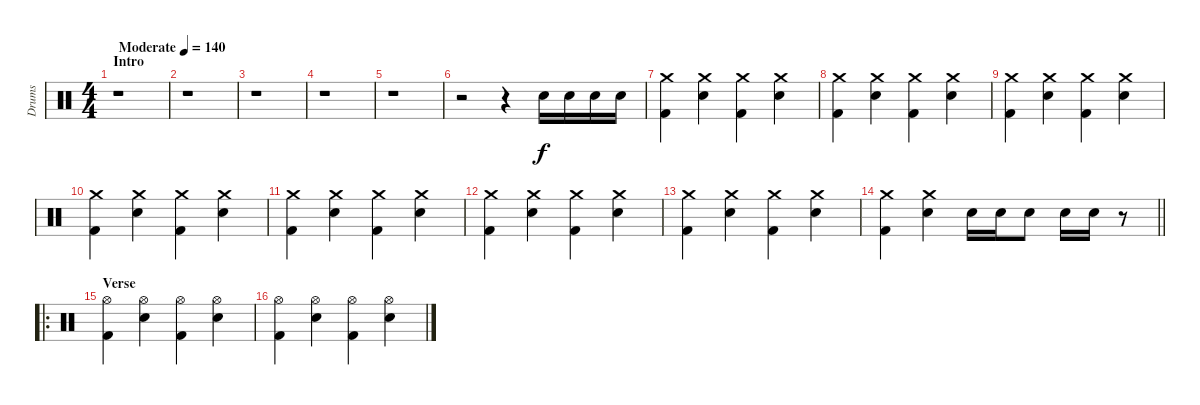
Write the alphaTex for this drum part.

\track ("Drums" "Drums") {instrument percussion}
\staff {score}
\articulation defaults
\ts (4 4)
\section ("" "Intro")
\tempo (140 "Moderate")
\clef neutral
\ks c
r.1{dy f} |
r.1 |
r.1 |
r.1 |
r.1 |
r.2 r.4 "Snare (hit) 2".16 "Snare (hit) 2".16 "Snare (hit) 2".16 "Snare (hit) 2".16 |
("Kick (hit) 2" "Crash medium (hit)").4 ("Crash medium (hit)" "Snare (hit) 2").4 ("Kick (hit) 2" "Crash medium (hit)").4 ("Crash medium (hit)" "Snare (hit) 2").4 |
("Kick (hit) 2" "Crash medium (hit)").4 ("Crash medium (hit)" "Snare (hit) 2").4 ("Kick (hit) 2" "Crash medium (hit)").4 ("Crash medium (hit)" "Snare (hit) 2").4 |
("Kick (hit) 2" "Crash medium (hit)").4 ("Crash medium (hit)" "Snare (hit) 2").4 ("Kick (hit) 2" "Crash medium (hit)").4 ("Crash medium (hit)" "Snare (hit) 2").4 |
("Kick (hit) 2" "Crash medium (hit)").4 ("Crash medium (hit)" "Snare (hit) 2").4 ("Kick (hit) 2" "Crash medium (hit)").4 ("Crash medium (hit)" "Snare (hit) 2").4 |
("Kick (hit) 2" "Crash medium (hit)").4 ("Crash medium (hit)" "Snare (hit) 2").4 ("Kick (hit) 2" "Crash medium (hit)").4 ("Crash medium (hit)" "Snare (hit) 2").4 |
("Kick (hit) 2" "Crash medium (hit)").4 ("Crash medium (hit)" "Snare (hit) 2").4 ("Kick (hit) 2" "Crash medium (hit)").4 ("Crash medium (hit)" "Snare (hit) 2").4 |
("Kick (hit) 2" "Crash medium (hit)").4 ("Crash medium (hit)" "Snare (hit) 2").4 ("Kick (hit) 2" "Crash medium (hit)").4 ("Crash medium (hit)" "Snare (hit) 2").4 |
\barLineRight lightlight
("Kick (hit) 2" "Crash medium (hit)").4 ("Crash medium (hit)" "Snare (hit) 2").4 "Snare (hit) 2".16 "Snare (hit) 2".16 "Snare (hit) 2".8 "Snare (hit) 2".16 "Snare (hit) 2".16 r.8 |
\ro
\section ("" "Verse")
("Hi-Hat (open)" "Kick (hit) 2").4 ("Hi-Hat (open)" "Snare (hit) 2").4 ("Hi-Hat (open)" "Kick (hit) 2").4 ("Hi-Hat (open)" "Snare (hit) 2").4 |
("Hi-Hat (open)" "Kick (hit) 2").4 ("Hi-Hat (open)" "Snare (hit) 2").4 ("Hi-Hat (open)" "Kick (hit) 2").4 ("Hi-Hat (open)" "Snare (hit) 2").4
